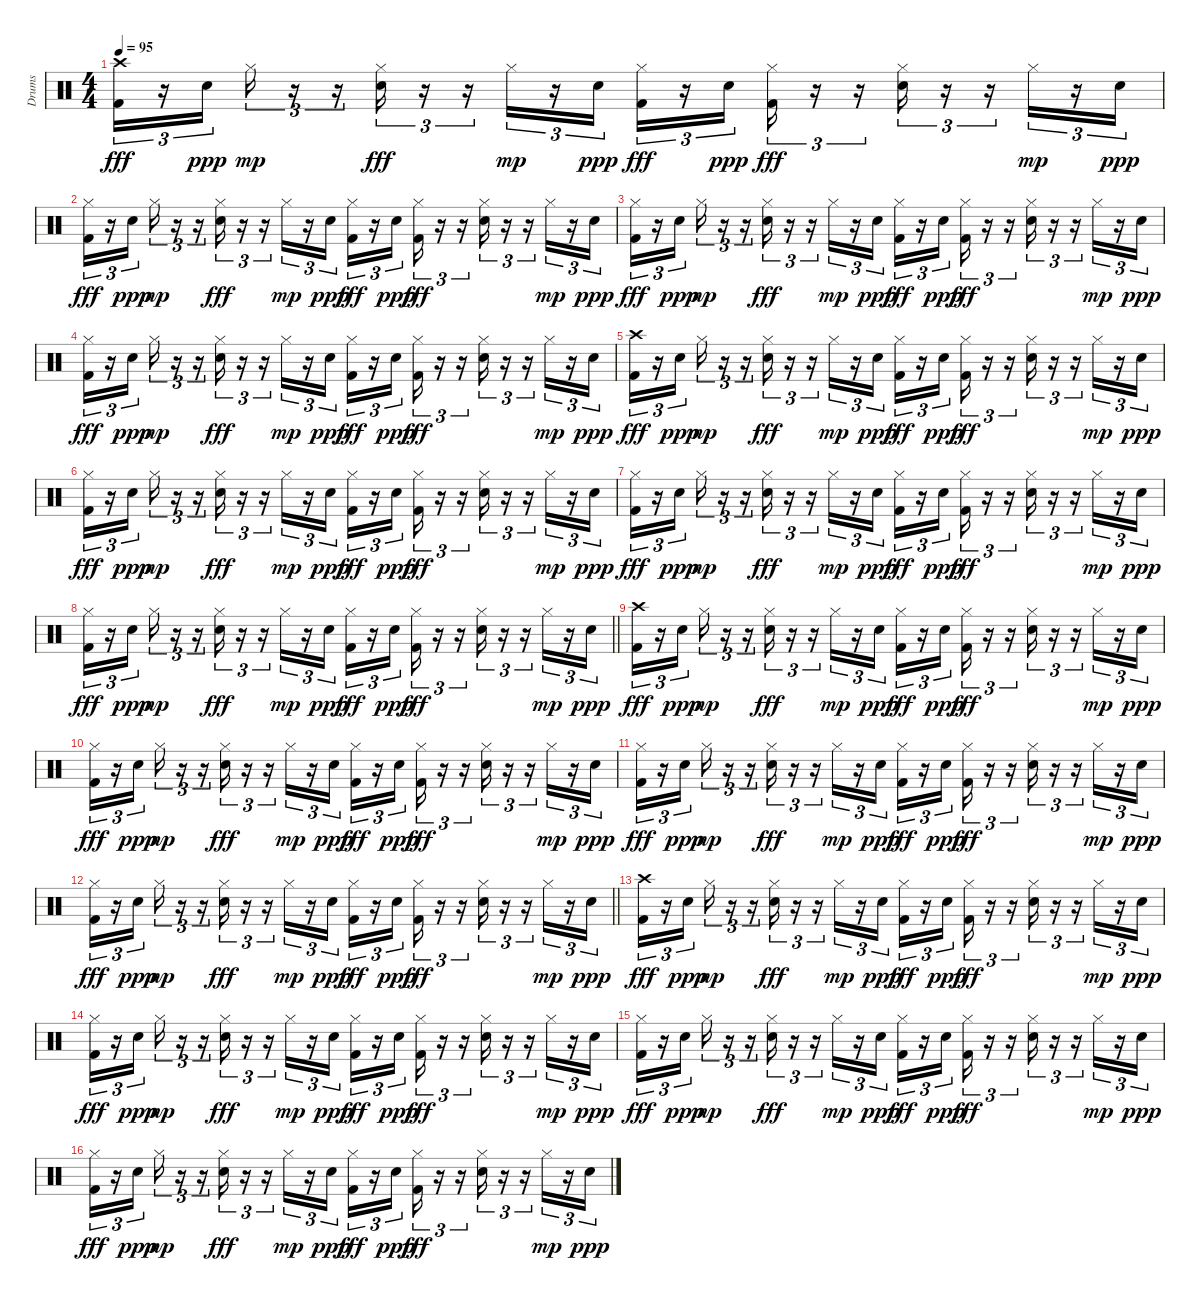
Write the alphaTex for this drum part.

\track ("Drums" "Drums") {instrument percussion}
\staff {score}
\articulation defaults
\ts (4 4)
\tempo 95
\clef neutral
\ks c
("Crash high (hit)" "Kick (hit) 2").16{tu (3 2) dy fff} r.16{tu (3 2)} "Electric Snare (hit)".16{tu (3 2) dy ppp} "Hi-Hat (closed)".16{tu (3 2) dy mp} r.16{tu (3 2)} r.16{tu (3 2)} ("Hi-Hat (closed)" "Electric Snare (hit)").16{tu (3 2) dy fff} r.16{tu (3 2)} r.16{tu (3 2)} "Hi-Hat (closed)".16{tu (3 2) dy mp} r.16{tu (3 2)} "Electric Snare (hit)".16{tu (3 2) dy ppp} ("Hi-Hat (closed)" "Kick (hit) 2").16{tu (3 2) dy fff} r.16{tu (3 2)} "Electric Snare (hit)".16{tu (3 2) dy ppp} ("Hi-Hat (closed)" "Kick (hit) 2").16{tu (3 2) dy fff} r.16{tu (3 2)} r.16{tu (3 2)} ("Hi-Hat (closed)" "Electric Snare (hit)").16{tu (3 2)} r.16{tu (3 2)} r.16{tu (3 2)} "Hi-Hat (closed)".16{tu (3 2) dy mp} r.16{tu (3 2)} "Electric Snare (hit)".16{tu (3 2) dy ppp} |
("Hi-Hat (closed)" "Kick (hit) 2").16{tu (3 2) dy fff} r.16{tu (3 2)} "Electric Snare (hit)".16{tu (3 2) dy ppp} "Hi-Hat (closed)".16{tu (3 2) dy mp} r.16{tu (3 2)} r.16{tu (3 2)} ("Hi-Hat (closed)" "Electric Snare (hit)").16{tu (3 2) dy fff} r.16{tu (3 2)} r.16{tu (3 2)} "Hi-Hat (closed)".16{tu (3 2) dy mp} r.16{tu (3 2)} "Electric Snare (hit)".16{tu (3 2) dy ppp} ("Hi-Hat (closed)" "Kick (hit) 2").16{tu (3 2) dy fff} r.16{tu (3 2)} "Electric Snare (hit)".16{tu (3 2) dy ppp} ("Hi-Hat (closed)" "Kick (hit) 2").16{tu (3 2) dy fff} r.16{tu (3 2)} r.16{tu (3 2)} ("Hi-Hat (closed)" "Electric Snare (hit)").16{tu (3 2)} r.16{tu (3 2)} r.16{tu (3 2)} "Hi-Hat (closed)".16{tu (3 2) dy mp} r.16{tu (3 2)} "Electric Snare (hit)".16{tu (3 2) dy ppp} |
("Hi-Hat (closed)" "Kick (hit) 2").16{tu (3 2) dy fff} r.16{tu (3 2)} "Electric Snare (hit)".16{tu (3 2) dy ppp} "Hi-Hat (closed)".16{tu (3 2) dy mp} r.16{tu (3 2)} r.16{tu (3 2)} ("Hi-Hat (closed)" "Electric Snare (hit)").16{tu (3 2) dy fff} r.16{tu (3 2)} r.16{tu (3 2)} "Hi-Hat (closed)".16{tu (3 2) dy mp} r.16{tu (3 2)} "Electric Snare (hit)".16{tu (3 2) dy ppp} ("Hi-Hat (closed)" "Kick (hit) 2").16{tu (3 2) dy fff} r.16{tu (3 2)} "Electric Snare (hit)".16{tu (3 2) dy ppp} ("Hi-Hat (closed)" "Kick (hit) 2").16{tu (3 2) dy fff} r.16{tu (3 2)} r.16{tu (3 2)} ("Hi-Hat (closed)" "Electric Snare (hit)").16{tu (3 2)} r.16{tu (3 2)} r.16{tu (3 2)} "Hi-Hat (closed)".16{tu (3 2) dy mp} r.16{tu (3 2)} "Electric Snare (hit)".16{tu (3 2) dy ppp} |
("Hi-Hat (closed)" "Kick (hit) 2").16{tu (3 2) dy fff} r.16{tu (3 2)} "Electric Snare (hit)".16{tu (3 2) dy ppp} "Hi-Hat (closed)".16{tu (3 2) dy mp} r.16{tu (3 2)} r.16{tu (3 2)} ("Hi-Hat (closed)" "Electric Snare (hit)").16{tu (3 2) dy fff} r.16{tu (3 2)} r.16{tu (3 2)} "Hi-Hat (closed)".16{tu (3 2) dy mp} r.16{tu (3 2)} "Electric Snare (hit)".16{tu (3 2) dy ppp} ("Hi-Hat (closed)" "Kick (hit) 2").16{tu (3 2) dy fff} r.16{tu (3 2)} "Electric Snare (hit)".16{tu (3 2) dy ppp} ("Hi-Hat (closed)" "Kick (hit) 2").16{tu (3 2) dy fff} r.16{tu (3 2)} r.16{tu (3 2)} ("Hi-Hat (closed)" "Electric Snare (hit)").16{tu (3 2)} r.16{tu (3 2)} r.16{tu (3 2)} "Hi-Hat (closed)".16{tu (3 2) dy mp} r.16{tu (3 2)} "Electric Snare (hit)".16{tu (3 2) dy ppp} |
("Crash high (hit)" "Kick (hit) 2").16{tu (3 2) dy fff} r.16{tu (3 2)} "Electric Snare (hit)".16{tu (3 2) dy ppp} "Hi-Hat (closed)".16{tu (3 2) dy mp} r.16{tu (3 2)} r.16{tu (3 2)} ("Hi-Hat (closed)" "Electric Snare (hit)").16{tu (3 2) dy fff} r.16{tu (3 2)} r.16{tu (3 2)} "Hi-Hat (closed)".16{tu (3 2) dy mp} r.16{tu (3 2)} "Electric Snare (hit)".16{tu (3 2) dy ppp} ("Hi-Hat (closed)" "Kick (hit) 2").16{tu (3 2) dy fff} r.16{tu (3 2)} "Electric Snare (hit)".16{tu (3 2) dy ppp} ("Hi-Hat (closed)" "Kick (hit) 2").16{tu (3 2) dy fff} r.16{tu (3 2)} r.16{tu (3 2)} ("Hi-Hat (closed)" "Electric Snare (hit)").16{tu (3 2)} r.16{tu (3 2)} r.16{tu (3 2)} "Hi-Hat (closed)".16{tu (3 2) dy mp} r.16{tu (3 2)} "Electric Snare (hit)".16{tu (3 2) dy ppp} |
("Hi-Hat (closed)" "Kick (hit) 2").16{tu (3 2) dy fff} r.16{tu (3 2)} "Electric Snare (hit)".16{tu (3 2) dy ppp} "Hi-Hat (closed)".16{tu (3 2) dy mp} r.16{tu (3 2)} r.16{tu (3 2)} ("Hi-Hat (closed)" "Electric Snare (hit)").16{tu (3 2) dy fff} r.16{tu (3 2)} r.16{tu (3 2)} "Hi-Hat (closed)".16{tu (3 2) dy mp} r.16{tu (3 2)} "Electric Snare (hit)".16{tu (3 2) dy ppp} ("Hi-Hat (closed)" "Kick (hit) 2").16{tu (3 2) dy fff} r.16{tu (3 2)} "Electric Snare (hit)".16{tu (3 2) dy ppp} ("Hi-Hat (closed)" "Kick (hit) 2").16{tu (3 2) dy fff} r.16{tu (3 2)} r.16{tu (3 2)} ("Hi-Hat (closed)" "Electric Snare (hit)").16{tu (3 2)} r.16{tu (3 2)} r.16{tu (3 2)} "Hi-Hat (closed)".16{tu (3 2) dy mp} r.16{tu (3 2)} "Electric Snare (hit)".16{tu (3 2) dy ppp} |
("Hi-Hat (closed)" "Kick (hit) 2").16{tu (3 2) dy fff} r.16{tu (3 2)} "Electric Snare (hit)".16{tu (3 2) dy ppp} "Hi-Hat (closed)".16{tu (3 2) dy mp} r.16{tu (3 2)} r.16{tu (3 2)} ("Hi-Hat (closed)" "Electric Snare (hit)").16{tu (3 2) dy fff} r.16{tu (3 2)} r.16{tu (3 2)} "Hi-Hat (closed)".16{tu (3 2) dy mp} r.16{tu (3 2)} "Electric Snare (hit)".16{tu (3 2) dy ppp} ("Hi-Hat (closed)" "Kick (hit) 2").16{tu (3 2) dy fff} r.16{tu (3 2)} "Electric Snare (hit)".16{tu (3 2) dy ppp} ("Hi-Hat (closed)" "Kick (hit) 2").16{tu (3 2) dy fff} r.16{tu (3 2)} r.16{tu (3 2)} ("Hi-Hat (closed)" "Electric Snare (hit)").16{tu (3 2)} r.16{tu (3 2)} r.16{tu (3 2)} "Hi-Hat (closed)".16{tu (3 2) dy mp} r.16{tu (3 2)} "Electric Snare (hit)".16{tu (3 2) dy ppp} |
\barLineRight lightlight
("Hi-Hat (closed)" "Kick (hit) 2").16{tu (3 2) dy fff} r.16{tu (3 2)} "Electric Snare (hit)".16{tu (3 2) dy ppp} "Hi-Hat (closed)".16{tu (3 2) dy mp} r.16{tu (3 2)} r.16{tu (3 2)} ("Hi-Hat (closed)" "Electric Snare (hit)").16{tu (3 2) dy fff} r.16{tu (3 2)} r.16{tu (3 2)} "Hi-Hat (closed)".16{tu (3 2) dy mp} r.16{tu (3 2)} "Electric Snare (hit)".16{tu (3 2) dy ppp} ("Hi-Hat (closed)" "Kick (hit) 2").16{tu (3 2) dy fff} r.16{tu (3 2)} "Electric Snare (hit)".16{tu (3 2) dy ppp} ("Hi-Hat (closed)" "Kick (hit) 2").16{tu (3 2) dy fff} r.16{tu (3 2)} r.16{tu (3 2)} ("Hi-Hat (closed)" "Electric Snare (hit)").16{tu (3 2)} r.16{tu (3 2)} r.16{tu (3 2)} "Hi-Hat (closed)".16{tu (3 2) dy mp} r.16{tu (3 2)} "Electric Snare (hit)".16{tu (3 2) dy ppp} |
("Crash high (hit)" "Kick (hit) 2").16{tu (3 2) dy fff} r.16{tu (3 2)} "Electric Snare (hit)".16{tu (3 2) dy ppp} "Hi-Hat (closed)".16{tu (3 2) dy mp} r.16{tu (3 2)} r.16{tu (3 2)} ("Hi-Hat (closed)" "Electric Snare (hit)").16{tu (3 2) dy fff} r.16{tu (3 2)} r.16{tu (3 2)} "Hi-Hat (closed)".16{tu (3 2) dy mp} r.16{tu (3 2)} "Electric Snare (hit)".16{tu (3 2) dy ppp} ("Hi-Hat (closed)" "Kick (hit) 2").16{tu (3 2) dy fff} r.16{tu (3 2)} "Electric Snare (hit)".16{tu (3 2) dy ppp} ("Hi-Hat (closed)" "Kick (hit) 2").16{tu (3 2) dy fff} r.16{tu (3 2)} r.16{tu (3 2)} ("Hi-Hat (closed)" "Electric Snare (hit)").16{tu (3 2)} r.16{tu (3 2)} r.16{tu (3 2)} "Hi-Hat (closed)".16{tu (3 2) dy mp} r.16{tu (3 2)} "Electric Snare (hit)".16{tu (3 2) dy ppp} |
("Hi-Hat (closed)" "Kick (hit) 2").16{tu (3 2) dy fff} r.16{tu (3 2)} "Electric Snare (hit)".16{tu (3 2) dy ppp} "Hi-Hat (closed)".16{tu (3 2) dy mp} r.16{tu (3 2)} r.16{tu (3 2)} ("Hi-Hat (closed)" "Electric Snare (hit)").16{tu (3 2) dy fff} r.16{tu (3 2)} r.16{tu (3 2)} "Hi-Hat (closed)".16{tu (3 2) dy mp} r.16{tu (3 2)} "Electric Snare (hit)".16{tu (3 2) dy ppp} ("Hi-Hat (closed)" "Kick (hit) 2").16{tu (3 2) dy fff} r.16{tu (3 2)} "Electric Snare (hit)".16{tu (3 2) dy ppp} ("Hi-Hat (closed)" "Kick (hit) 2").16{tu (3 2) dy fff} r.16{tu (3 2)} r.16{tu (3 2)} ("Hi-Hat (closed)" "Electric Snare (hit)").16{tu (3 2)} r.16{tu (3 2)} r.16{tu (3 2)} "Hi-Hat (closed)".16{tu (3 2) dy mp} r.16{tu (3 2)} "Electric Snare (hit)".16{tu (3 2) dy ppp} |
("Hi-Hat (closed)" "Kick (hit) 2").16{tu (3 2) dy fff} r.16{tu (3 2)} "Electric Snare (hit)".16{tu (3 2) dy ppp} "Hi-Hat (closed)".16{tu (3 2) dy mp} r.16{tu (3 2)} r.16{tu (3 2)} ("Hi-Hat (closed)" "Electric Snare (hit)").16{tu (3 2) dy fff} r.16{tu (3 2)} r.16{tu (3 2)} "Hi-Hat (closed)".16{tu (3 2) dy mp} r.16{tu (3 2)} "Electric Snare (hit)".16{tu (3 2) dy ppp} ("Hi-Hat (closed)" "Kick (hit) 2").16{tu (3 2) dy fff} r.16{tu (3 2)} "Electric Snare (hit)".16{tu (3 2) dy ppp} ("Hi-Hat (closed)" "Kick (hit) 2").16{tu (3 2) dy fff} r.16{tu (3 2)} r.16{tu (3 2)} ("Hi-Hat (closed)" "Electric Snare (hit)").16{tu (3 2)} r.16{tu (3 2)} r.16{tu (3 2)} "Hi-Hat (closed)".16{tu (3 2) dy mp} r.16{tu (3 2)} "Electric Snare (hit)".16{tu (3 2) dy ppp} |
\barLineRight lightlight
("Hi-Hat (closed)" "Kick (hit) 2").16{tu (3 2) dy fff} r.16{tu (3 2)} "Electric Snare (hit)".16{tu (3 2) dy ppp} "Hi-Hat (closed)".16{tu (3 2) dy mp} r.16{tu (3 2)} r.16{tu (3 2)} ("Hi-Hat (closed)" "Electric Snare (hit)").16{tu (3 2) dy fff} r.16{tu (3 2)} r.16{tu (3 2)} "Hi-Hat (closed)".16{tu (3 2) dy mp} r.16{tu (3 2)} "Electric Snare (hit)".16{tu (3 2) dy ppp} ("Hi-Hat (closed)" "Kick (hit) 2").16{tu (3 2) dy fff} r.16{tu (3 2)} "Electric Snare (hit)".16{tu (3 2) dy ppp} ("Hi-Hat (closed)" "Kick (hit) 2").16{tu (3 2) dy fff} r.16{tu (3 2)} r.16{tu (3 2)} ("Hi-Hat (closed)" "Electric Snare (hit)").16{tu (3 2)} r.16{tu (3 2)} r.16{tu (3 2)} "Hi-Hat (closed)".16{tu (3 2) dy mp} r.16{tu (3 2)} "Electric Snare (hit)".16{tu (3 2) dy ppp} |
("Crash high (hit)" "Kick (hit) 2").16{tu (3 2) dy fff} r.16{tu (3 2)} "Electric Snare (hit)".16{tu (3 2) dy ppp} "Hi-Hat (closed)".16{tu (3 2) dy mp} r.16{tu (3 2)} r.16{tu (3 2)} ("Hi-Hat (closed)" "Electric Snare (hit)").16{tu (3 2) dy fff} r.16{tu (3 2)} r.16{tu (3 2)} "Hi-Hat (closed)".16{tu (3 2) dy mp} r.16{tu (3 2)} "Electric Snare (hit)".16{tu (3 2) dy ppp} ("Hi-Hat (closed)" "Kick (hit) 2").16{tu (3 2) dy fff} r.16{tu (3 2)} "Electric Snare (hit)".16{tu (3 2) dy ppp} ("Hi-Hat (closed)" "Kick (hit) 2").16{tu (3 2) dy fff} r.16{tu (3 2)} r.16{tu (3 2)} ("Hi-Hat (closed)" "Electric Snare (hit)").16{tu (3 2)} r.16{tu (3 2)} r.16{tu (3 2)} "Hi-Hat (closed)".16{tu (3 2) dy mp} r.16{tu (3 2)} "Electric Snare (hit)".16{tu (3 2) dy ppp} |
("Hi-Hat (closed)" "Kick (hit) 2").16{tu (3 2) dy fff} r.16{tu (3 2)} "Electric Snare (hit)".16{tu (3 2) dy ppp} "Hi-Hat (closed)".16{tu (3 2) dy mp} r.16{tu (3 2)} r.16{tu (3 2)} ("Hi-Hat (closed)" "Electric Snare (hit)").16{tu (3 2) dy fff} r.16{tu (3 2)} r.16{tu (3 2)} "Hi-Hat (closed)".16{tu (3 2) dy mp} r.16{tu (3 2)} "Electric Snare (hit)".16{tu (3 2) dy ppp} ("Hi-Hat (closed)" "Kick (hit) 2").16{tu (3 2) dy fff} r.16{tu (3 2)} "Electric Snare (hit)".16{tu (3 2) dy ppp} ("Hi-Hat (closed)" "Kick (hit) 2").16{tu (3 2) dy fff} r.16{tu (3 2)} r.16{tu (3 2)} ("Hi-Hat (closed)" "Electric Snare (hit)").16{tu (3 2)} r.16{tu (3 2)} r.16{tu (3 2)} "Hi-Hat (closed)".16{tu (3 2) dy mp} r.16{tu (3 2)} "Electric Snare (hit)".16{tu (3 2) dy ppp} |
("Hi-Hat (closed)" "Kick (hit) 2").16{tu (3 2) dy fff} r.16{tu (3 2)} "Electric Snare (hit)".16{tu (3 2) dy ppp} "Hi-Hat (closed)".16{tu (3 2) dy mp} r.16{tu (3 2)} r.16{tu (3 2)} ("Hi-Hat (closed)" "Electric Snare (hit)").16{tu (3 2) dy fff} r.16{tu (3 2)} r.16{tu (3 2)} "Hi-Hat (closed)".16{tu (3 2) dy mp} r.16{tu (3 2)} "Electric Snare (hit)".16{tu (3 2) dy ppp} ("Hi-Hat (closed)" "Kick (hit) 2").16{tu (3 2) dy fff} r.16{tu (3 2)} "Electric Snare (hit)".16{tu (3 2) dy ppp} ("Hi-Hat (closed)" "Kick (hit) 2").16{tu (3 2) dy fff} r.16{tu (3 2)} r.16{tu (3 2)} ("Hi-Hat (closed)" "Electric Snare (hit)").16{tu (3 2)} r.16{tu (3 2)} r.16{tu (3 2)} "Hi-Hat (closed)".16{tu (3 2) dy mp} r.16{tu (3 2)} "Electric Snare (hit)".16{tu (3 2) dy ppp} |
("Hi-Hat (closed)" "Kick (hit) 2").16{tu (3 2) dy fff} r.16{tu (3 2)} "Electric Snare (hit)".16{tu (3 2) dy ppp} "Hi-Hat (closed)".16{tu (3 2) dy mp} r.16{tu (3 2)} r.16{tu (3 2)} ("Hi-Hat (closed)" "Electric Snare (hit)").16{tu (3 2) dy fff} r.16{tu (3 2)} r.16{tu (3 2)} "Hi-Hat (closed)".16{tu (3 2) dy mp} r.16{tu (3 2)} "Electric Snare (hit)".16{tu (3 2) dy ppp} ("Hi-Hat (closed)" "Kick (hit) 2").16{tu (3 2) dy fff} r.16{tu (3 2)} "Electric Snare (hit)".16{tu (3 2) dy ppp} ("Hi-Hat (closed)" "Kick (hit) 2").16{tu (3 2) dy fff} r.16{tu (3 2)} r.16{tu (3 2)} ("Hi-Hat (closed)" "Electric Snare (hit)").16{tu (3 2)} r.16{tu (3 2)} r.16{tu (3 2)} "Hi-Hat (closed)".16{tu (3 2) dy mp} r.16{tu (3 2)} "Electric Snare (hit)".16{tu (3 2) dy ppp}
